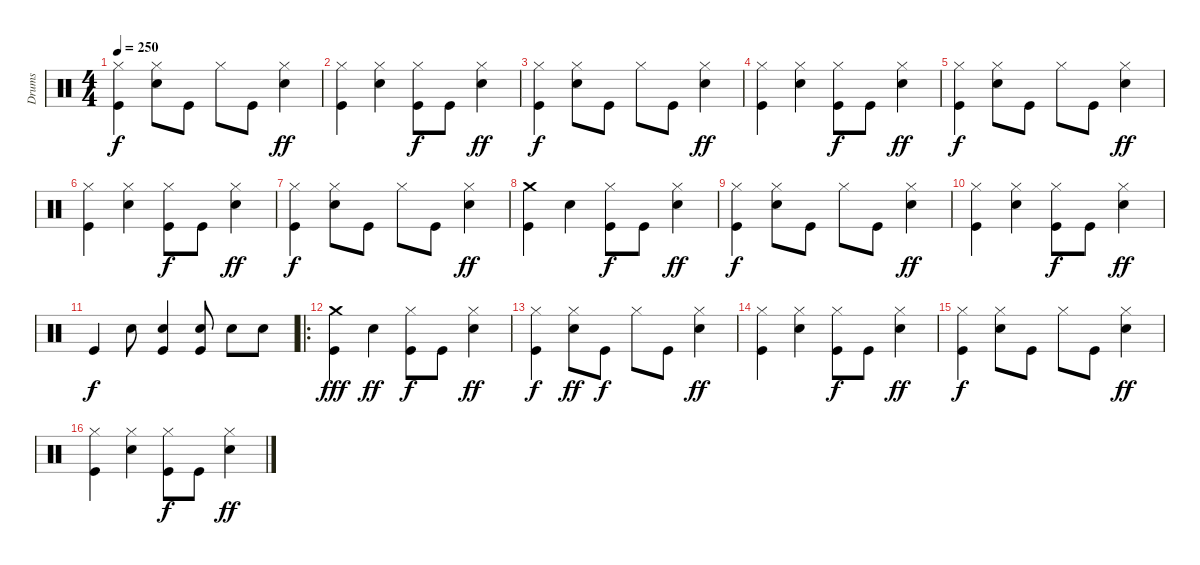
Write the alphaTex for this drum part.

\track ("Drums" "Drums") {instrument percussion}
\staff {score}
\articulation defaults
\ts (4 4)
\tempo 250
\clef neutral
\ks c
("Hi-Hat (closed)" "Kick (hit)").4{dy f} ("Hi-Hat (closed)" "Snare (hit) 2").8 "Kick (hit)".8 "Hi-Hat (closed)".8 "Kick (hit)".8 ("Hi-Hat (closed)" "Snare (hit) 2").4{dy ff} |
("Hi-Hat (closed)" "Kick (hit)").4 ("Hi-Hat (closed)" "Snare (hit) 2").4 ("Hi-Hat (closed)" "Kick (hit)").8{dy f} "Kick (hit)".8 ("Hi-Hat (closed)" "Snare (hit) 2").4{dy ff} |
("Hi-Hat (closed)" "Kick (hit)").4{dy f} ("Hi-Hat (closed)" "Snare (hit) 2").8 "Kick (hit)".8 "Hi-Hat (closed)".8 "Kick (hit)".8 ("Hi-Hat (closed)" "Snare (hit) 2").4{dy ff} |
("Hi-Hat (closed)" "Kick (hit)").4 ("Hi-Hat (closed)" "Snare (hit) 2").4 ("Hi-Hat (closed)" "Kick (hit)").8{dy f} "Kick (hit)".8 ("Hi-Hat (closed)" "Snare (hit) 2").4{dy ff} |
("Hi-Hat (closed)" "Kick (hit)").4{dy f} ("Hi-Hat (closed)" "Snare (hit) 2").8 "Kick (hit)".8 "Hi-Hat (closed)".8 "Kick (hit)".8 ("Hi-Hat (closed)" "Snare (hit) 2").4{dy ff} |
("Hi-Hat (closed)" "Kick (hit)").4 ("Hi-Hat (closed)" "Snare (hit) 2").4 ("Hi-Hat (closed)" "Kick (hit)").8{dy f} "Kick (hit)".8 ("Hi-Hat (closed)" "Snare (hit) 2").4{dy ff} |
("Hi-Hat (closed)" "Kick (hit)").4{dy f} ("Hi-Hat (closed)" "Snare (hit) 2").8 "Kick (hit)".8 "Hi-Hat (closed)".8 "Kick (hit)".8 ("Hi-Hat (closed)" "Snare (hit) 2").4{dy ff} |
("Crash medium (hit)" "Kick (hit)").4 "Snare (hit) 2".4 ("Hi-Hat (closed)" "Kick (hit)").8{dy f} "Kick (hit)".8 ("Hi-Hat (closed)" "Snare (hit) 2").4{dy ff} |
("Hi-Hat (closed)" "Kick (hit)").4{dy f} ("Hi-Hat (closed)" "Snare (hit) 2").8 "Kick (hit)".8 "Hi-Hat (closed)".8 "Kick (hit)".8 ("Hi-Hat (closed)" "Snare (hit) 2").4{dy ff} |
("Hi-Hat (closed)" "Kick (hit)").4 ("Hi-Hat (closed)" "Snare (hit) 2").4 ("Hi-Hat (closed)" "Kick (hit)").8{dy f} "Kick (hit)".8 ("Hi-Hat (closed)" "Snare (hit) 2").4{dy ff} |
"Kick (hit)".4{dy f} "Snare (hit) 2".8 ("Snare (hit) 2" "Kick (hit)").4 ("Snare (hit) 2" "Kick (hit)").8 "Snare (hit) 2".8 "Snare (hit) 2".8 |
\ro
("Crash medium (hit)" "Kick (hit)").4{dy fff} "Snare (hit) 2".4{dy ff} ("Hi-Hat (closed)" "Kick (hit)").8{dy f} "Kick (hit)".8 ("Hi-Hat (closed)" "Snare (hit) 2").4{dy ff} |
("Hi-Hat (closed)" "Kick (hit)").4{dy f} ("Hi-Hat (closed)" "Snare (hit) 2").8{dy ff} "Kick (hit)".8{dy f} "Hi-Hat (closed)".8 "Kick (hit)".8 ("Hi-Hat (closed)" "Snare (hit) 2").4{dy ff} |
("Hi-Hat (closed)" "Kick (hit)").4 ("Hi-Hat (closed)" "Snare (hit) 2").4 ("Hi-Hat (closed)" "Kick (hit)").8{dy f} "Kick (hit)".8 ("Hi-Hat (closed)" "Snare (hit) 2").4{dy ff} |
("Hi-Hat (closed)" "Kick (hit)").4{dy f} ("Hi-Hat (closed)" "Snare (hit) 2").8 "Kick (hit)".8 "Hi-Hat (closed)".8 "Kick (hit)".8 ("Hi-Hat (closed)" "Snare (hit) 2").4{dy ff} |
("Hi-Hat (closed)" "Kick (hit)").4 ("Hi-Hat (closed)" "Snare (hit) 2").4 ("Hi-Hat (closed)" "Kick (hit)").8{dy f} "Kick (hit)".8 ("Hi-Hat (closed)" "Snare (hit) 2").4{dy ff}
